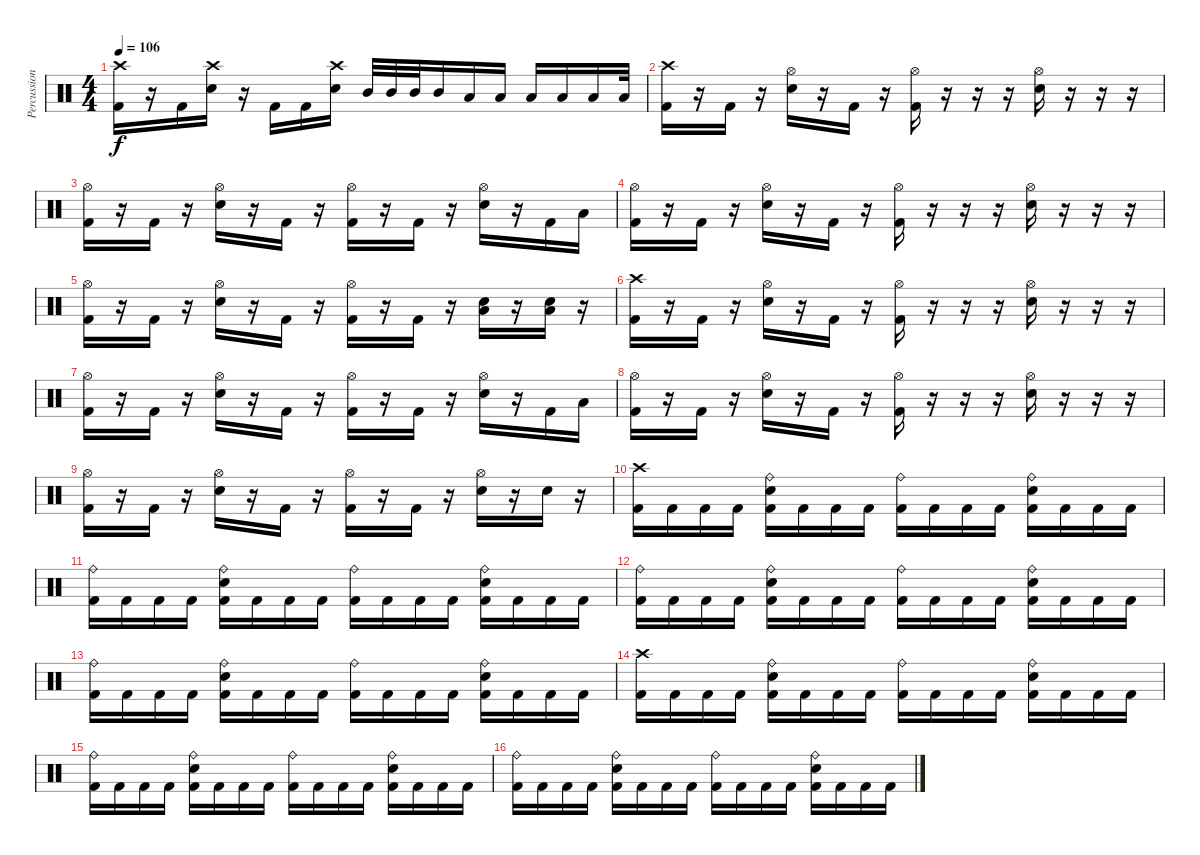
\track ("Percussion" "Percussion") {instrument percussion}
\staff {score}
\articulation defaults
\ts (4 4)
\tempo 106
\clef neutral
\ks c
("Crash high (hit)" "Kick (hit) 2").16{dy f} r.16 "Kick (hit) 2".16 ("Crash high (hit)" "Snare (hit) 2").16 r.16 "Kick (hit) 2".16 "Kick (hit) 2".16 ("Crash high (hit)" "Snare (hit) 2").16 "Mid Tom (hit)".32 "Mid Tom (hit)".32 "Mid Tom (hit)".32 "Mid Tom (hit)".16 "Low Tom (hit)".16 "Low Tom (hit)".16 "Low Tom (hit)".16 "Low Tom (hit)".16 "Low Floor Tom (hit)".16 "Low Floor Tom (hit)".32 |
("Crash high (hit)" "Kick (hit) 2").16 r.16 "Kick (hit) 2".16 r.16 ("Hi-Hat (open)" "Snare (hit) 2").16 r.16 "Kick (hit) 2".16 r.16 ("Hi-Hat (open)" "Kick (hit) 2").16 r.16 r.16 r.16 ("Hi-Hat (open)" "Snare (hit) 2").16 r.16 r.16 r.16 |
("Hi-Hat (open)" "Kick (hit) 2").16 r.16 "Kick (hit) 2".16 r.16 ("Hi-Hat (open)" "Snare (hit) 2").16 r.16 "Kick (hit) 2".16 r.16 ("Hi-Hat (open)" "Kick (hit) 2").16 r.16 "Kick (hit) 2".16 r.16 ("Hi-Hat (open)" "Snare (hit) 2").16 r.16 "Kick (hit) 2".16 "Low Floor Tom (hit)".16 |
("Hi-Hat (open)" "Kick (hit) 2").16 r.16 "Kick (hit) 2".16 r.16 ("Hi-Hat (open)" "Snare (hit) 2").16 r.16 "Kick (hit) 2".16 r.16 ("Hi-Hat (open)" "Kick (hit) 2").16 r.16 r.16 r.16 ("Hi-Hat (open)" "Snare (hit) 2").16 r.16 r.16 r.16 |
("Hi-Hat (open)" "Kick (hit) 2").16 r.16 "Kick (hit) 2".16 r.16 ("Hi-Hat (open)" "Snare (hit) 2").16 r.16 "Kick (hit) 2".16 r.16 ("Hi-Hat (open)" "Kick (hit) 2").16 r.16 "Kick (hit) 2".16 r.16 ("Low Floor Tom (hit)" "Snare (hit) 2").16 r.16 ("Low Floor Tom (hit)" "Snare (hit) 2").16 r.16 |
("Crash high (hit)" "Kick (hit) 2").16 r.16 "Kick (hit) 2".16 r.16 ("Hi-Hat (open)" "Snare (hit) 2").16 r.16 "Kick (hit) 2".16 r.16 ("Hi-Hat (open)" "Kick (hit) 2").16 r.16 r.16 r.16 ("Hi-Hat (open)" "Snare (hit) 2").16 r.16 r.16 r.16 |
("Hi-Hat (open)" "Kick (hit) 2").16 r.16 "Kick (hit) 2".16 r.16 ("Hi-Hat (open)" "Snare (hit) 2").16 r.16 "Kick (hit) 2".16 r.16 ("Hi-Hat (open)" "Kick (hit) 2").16 r.16 "Kick (hit) 2".16 r.16 ("Hi-Hat (open)" "Snare (hit) 2").16 r.16 "Kick (hit) 2".16 "Low Floor Tom (hit)".16 |
("Hi-Hat (open)" "Kick (hit) 2").16 r.16 "Kick (hit) 2".16 r.16 ("Hi-Hat (open)" "Snare (hit) 2").16 r.16 "Kick (hit) 2".16 r.16 ("Hi-Hat (open)" "Kick (hit) 2").16 r.16 r.16 r.16 ("Hi-Hat (open)" "Snare (hit) 2").16 r.16 r.16 r.16 |
("Hi-Hat (open)" "Kick (hit) 2").16 r.16 "Kick (hit) 2".16 r.16 ("Hi-Hat (open)" "Snare (hit) 2").16 r.16 "Kick (hit) 2".16 r.16 ("Hi-Hat (open)" "Kick (hit) 2").16 r.16 "Kick (hit) 2".16 r.16 ("Hi-Hat (open)" "Snare (hit) 2").16 r.16 "Snare (hit) 2".16 r.16 |
("Crash high (hit)" "Kick (hit) 2").16 "Kick (hit) 2".16 "Kick (hit) 2".16 "Kick (hit) 2".16 ("Ride (bell)" "Snare (hit) 2" "Kick (hit) 2").16 "Kick (hit) 2".16 "Kick (hit) 2".16 "Kick (hit) 2".16 ("Ride (bell)" "Kick (hit) 2").16 "Kick (hit) 2".16 "Kick (hit) 2".16 "Kick (hit) 2".16 ("Ride (bell)" "Snare (hit) 2" "Kick (hit) 2").16 "Kick (hit) 2".16 "Kick (hit) 2".16 "Kick (hit) 2".16 |
("Ride (bell)" "Kick (hit) 2").16 "Kick (hit) 2".16 "Kick (hit) 2".16 "Kick (hit) 2".16 ("Ride (bell)" "Snare (hit) 2" "Kick (hit) 2").16 "Kick (hit) 2".16 "Kick (hit) 2".16 "Kick (hit) 2".16 ("Ride (bell)" "Kick (hit) 2").16 "Kick (hit) 2".16 "Kick (hit) 2".16 "Kick (hit) 2".16 ("Ride (bell)" "Snare (hit) 2" "Kick (hit) 2").16 "Kick (hit) 2".16 "Kick (hit) 2".16 "Kick (hit) 2".16 |
("Ride (bell)" "Kick (hit) 2").16 "Kick (hit) 2".16 "Kick (hit) 2".16 "Kick (hit) 2".16 ("Ride (bell)" "Snare (hit) 2" "Kick (hit) 2").16 "Kick (hit) 2".16 "Kick (hit) 2".16 "Kick (hit) 2".16 ("Ride (bell)" "Kick (hit) 2").16 "Kick (hit) 2".16 "Kick (hit) 2".16 "Kick (hit) 2".16 ("Ride (bell)" "Snare (hit) 2" "Kick (hit) 2").16 "Kick (hit) 2".16 "Kick (hit) 2".16 "Kick (hit) 2".16 |
("Ride (bell)" "Kick (hit) 2").16 "Kick (hit) 2".16 "Kick (hit) 2".16 "Kick (hit) 2".16 ("Ride (bell)" "Snare (hit) 2" "Kick (hit) 2").16 "Kick (hit) 2".16 "Kick (hit) 2".16 "Kick (hit) 2".16 ("Ride (bell)" "Kick (hit) 2").16 "Kick (hit) 2".16 "Kick (hit) 2".16 "Kick (hit) 2".16 ("Ride (bell)" "Snare (hit) 2" "Kick (hit) 2").16 "Kick (hit) 2".16 "Kick (hit) 2".16 "Kick (hit) 2".16 |
("Crash high (hit)" "Kick (hit) 2").16 "Kick (hit) 2".16 "Kick (hit) 2".16 "Kick (hit) 2".16 ("Ride (bell)" "Snare (hit) 2" "Kick (hit) 2").16 "Kick (hit) 2".16 "Kick (hit) 2".16 "Kick (hit) 2".16 ("Ride (bell)" "Kick (hit) 2").16 "Kick (hit) 2".16 "Kick (hit) 2".16 "Kick (hit) 2".16 ("Ride (bell)" "Snare (hit) 2" "Kick (hit) 2").16 "Kick (hit) 2".16 "Kick (hit) 2".16 "Kick (hit) 2".16 |
("Ride (bell)" "Kick (hit) 2").16 "Kick (hit) 2".16 "Kick (hit) 2".16 "Kick (hit) 2".16 ("Ride (bell)" "Snare (hit) 2" "Kick (hit) 2").16 "Kick (hit) 2".16 "Kick (hit) 2".16 "Kick (hit) 2".16 ("Ride (bell)" "Kick (hit) 2").16 "Kick (hit) 2".16 "Kick (hit) 2".16 "Kick (hit) 2".16 ("Ride (bell)" "Snare (hit) 2" "Kick (hit) 2").16 "Kick (hit) 2".16 "Kick (hit) 2".16 "Kick (hit) 2".16 |
("Ride (bell)" "Kick (hit) 2").16 "Kick (hit) 2".16 "Kick (hit) 2".16 "Kick (hit) 2".16 ("Ride (bell)" "Snare (hit) 2" "Kick (hit) 2").16 "Kick (hit) 2".16 "Kick (hit) 2".16 "Kick (hit) 2".16 ("Ride (bell)" "Kick (hit) 2").16 "Kick (hit) 2".16 "Kick (hit) 2".16 "Kick (hit) 2".16 ("Ride (bell)" "Snare (hit) 2" "Kick (hit) 2").16 "Kick (hit) 2".16 "Kick (hit) 2".16 "Kick (hit) 2".16
